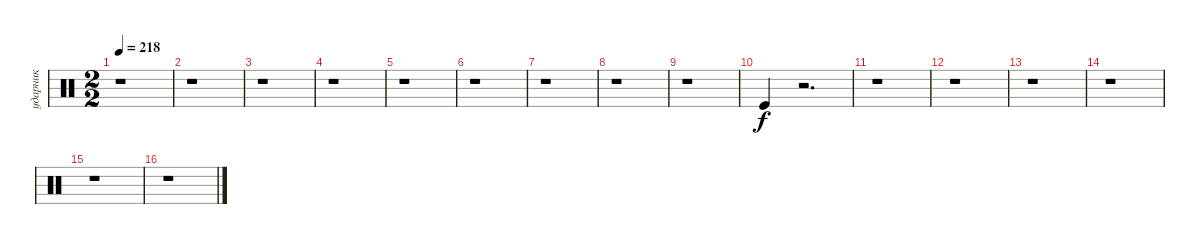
\track ("ударник" "ударник") {instrument percussion}
\staff {score}
\articulation defaults
\ts (2 2)
\tempo 218
\clef neutral
\ks c
r.1{dy f} |
r.1 |
r.1 |
r.1 |
r.1 |
r.1 |
r.1 |
r.1 |
r.1 |
"Kick (hit)".4 r.2{d} |
r.1 |
r.1 |
r.1 |
r.1 |
r.1 |
r.1
